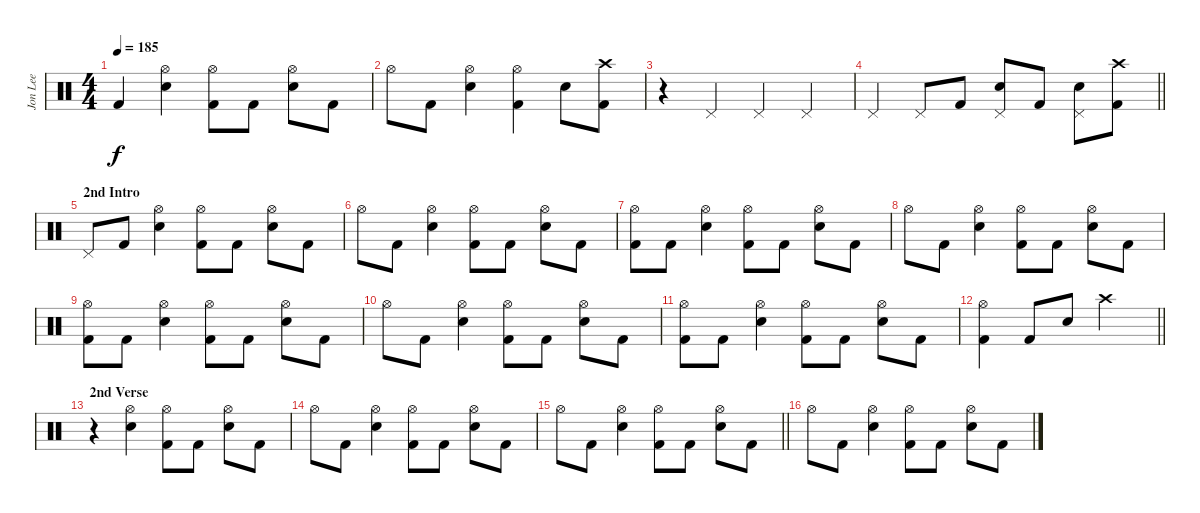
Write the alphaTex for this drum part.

\track ("Jon Lee" "Jon Lee") {instrument percussion bank 10}
\staff {score}
\articulation defaults
\ts (4 4)
\tempo 185
\clef neutral
\ks c "Kick (hit) 2".4{dy f}
("Snare (hit) 2" "Hi-Hat (open)").4 ("Kick (hit) 2" "Hi-Hat (open)").8 "Kick (hit) 2".8 ("Snare (hit) 2" "Hi-Hat (open)").8 "Kick (hit) 2".8 |
"Hi-Hat (open)".8 "Kick (hit) 2".8 ("Snare (hit) 2" "Hi-Hat (open)").4 ("Kick (hit) 2" "Hi-Hat (open)").4 "Snare (hit) 2".8 ("Kick (hit) 2" "Crash high (hit)").8 |
r.4 "Pedal Hi-Hat (hit)".4 "Pedal Hi-Hat (hit)".4 "Pedal Hi-Hat (hit)".4 |
\barLineRight lightlight "Pedal Hi-Hat (hit)".4 "Pedal Hi-Hat (hit)".8 "Kick (hit) 2".8
("Pedal Hi-Hat (hit)" "Snare (hit) 2").8 "Kick (hit) 2".8 ("Pedal Hi-Hat (hit)" "Snare (hit) 2").8 ("Kick (hit) 2" "Crash high (hit)").8 |
\section ("" "2nd Intro")
"Pedal Hi-Hat (hit)".8 "Kick (hit) 2".8 ("Snare (hit) 2" "Hi-Hat (open)").4 ("Kick (hit) 2" "Hi-Hat (open)").8 "Kick (hit) 2".8 ("Snare (hit) 2" "Hi-Hat (open)").8 "Kick (hit) 2".8 |
"Hi-Hat (open)".8 "Kick (hit) 2".8 ("Snare (hit) 2" "Hi-Hat (open)").4 ("Kick (hit) 2" "Hi-Hat (open)").8 "Kick (hit) 2".8 ("Snare (hit) 2" "Hi-Hat (open)").8 "Kick (hit) 2".8 |
("Hi-Hat (open)" "Kick (hit) 2").8 "Kick (hit) 2".8 ("Snare (hit) 2" "Hi-Hat (open)").4 ("Kick (hit) 2" "Hi-Hat (open)").8 "Kick (hit) 2".8 ("Snare (hit) 2" "Hi-Hat (open)").8 "Kick (hit) 2".8 |
"Hi-Hat (open)".8 "Kick (hit) 2".8 ("Snare (hit) 2" "Hi-Hat (open)").4 ("Kick (hit) 2" "Hi-Hat (open)").8 "Kick (hit) 2".8 ("Snare (hit) 2" "Hi-Hat (open)").8 "Kick (hit) 2".8 |
("Hi-Hat (open)" "Kick (hit) 2").8 "Kick (hit) 2".8 ("Snare (hit) 2" "Hi-Hat (open)").4 ("Kick (hit) 2" "Hi-Hat (open)").8 "Kick (hit) 2".8 ("Snare (hit) 2" "Hi-Hat (open)").8 "Kick (hit) 2".8 |
"Hi-Hat (open)".8 "Kick (hit) 2".8 ("Snare (hit) 2" "Hi-Hat (open)").4 ("Kick (hit) 2" "Hi-Hat (open)").8 "Kick (hit) 2".8 ("Snare (hit) 2" "Hi-Hat (open)").8 "Kick (hit) 2".8 |
("Hi-Hat (open)" "Kick (hit) 2").8 "Kick (hit) 2".8 ("Snare (hit) 2" "Hi-Hat (open)").4 ("Kick (hit) 2" "Hi-Hat (open)").8 "Kick (hit) 2".8 ("Snare (hit) 2" "Hi-Hat (open)").8 "Kick (hit) 2".8 |
\barLineRight lightlight
("Hi-Hat (open)" "Kick (hit) 2").4 "Kick (hit) 2".8 "Snare (hit) 2".8 "Crash high (hit)".2 |
\section ("" "2nd Verse")
r.4 ("Snare (hit) 2" "Hi-Hat (open)").4 ("Hi-Hat (open)" "Kick (hit) 2").8 "Kick (hit) 2".8 ("Snare (hit) 2" "Hi-Hat (open)").8 "Kick (hit) 2".8 |
"Hi-Hat (open)".8 "Kick (hit) 2".8 ("Snare (hit) 2" "Hi-Hat (open)").4 ("Hi-Hat (open)" "Kick (hit) 2").8 "Kick (hit) 2".8 ("Snare (hit) 2" "Hi-Hat (open)").8 "Kick (hit) 2".8 |
\barLineRight lightlight "Hi-Hat (open)".8 "Kick (hit) 2".8
("Snare (hit) 2" "Hi-Hat (open)").4 ("Hi-Hat (open)" "Kick (hit) 2").8 "Kick (hit) 2".8 ("Snare (hit) 2" "Hi-Hat (open)").8 "Kick (hit) 2".8 |
"Hi-Hat (open)".8 "Kick (hit) 2".8 ("Snare (hit) 2" "Hi-Hat (open)").4 ("Hi-Hat (open)" "Kick (hit) 2").8 "Kick (hit) 2".8 ("Snare (hit) 2" "Hi-Hat (open)").8 "Kick (hit) 2".8
